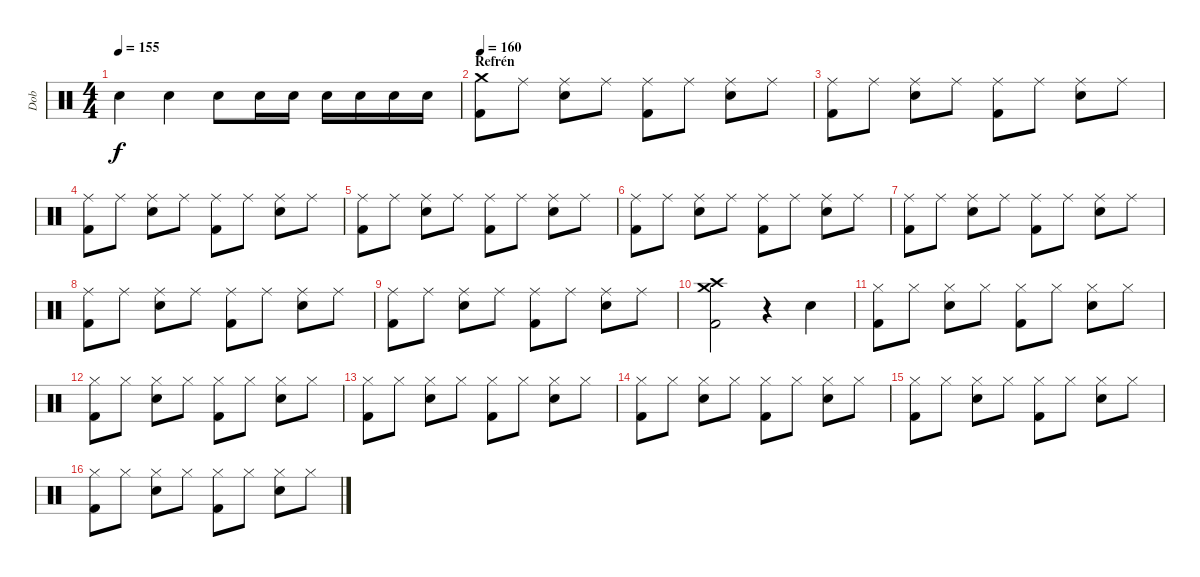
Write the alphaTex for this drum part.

\track ("Dob" "Dob") {instrument percussion}
\staff {score}
\articulation defaults
\ts (4 4)
\tempo 155
\clef neutral
\ks c "Snare (hit) 2".4{dy f} "Snare (hit) 2".4 "Snare (hit) 2".8 "Snare (hit) 2".16 "Snare (hit) 2".16 "Snare (hit) 2".16 "Snare (hit) 2".16 "Snare (hit) 2".16 "Snare (hit) 2".16
|
\section ("" "Refrén")
\tempo 160
("Crash medium (hit)" "Kick (hit) 2").8 "Ride (middle)".8 ("Ride (middle)" "Snare (hit) 2").8 "Ride (middle)".8 ("Ride (middle)" "Kick (hit) 2").8 "Ride (middle)".8 ("Ride (middle)" "Snare (hit) 2").8 "Ride (middle)".8 |
("Ride (middle)" "Kick (hit) 2").8 "Ride (middle)".8 ("Ride (middle)" "Snare (hit) 2").8 "Ride (middle)".8 ("Ride (middle)" "Kick (hit) 2").8 "Ride (middle)".8 ("Ride (middle)" "Snare (hit) 2").8 "Ride (middle)".8 |
("Ride (middle)" "Kick (hit) 2").8 "Ride (middle)".8 ("Ride (middle)" "Snare (hit) 2").8 "Ride (middle)".8 ("Ride (middle)" "Kick (hit) 2").8 "Ride (middle)".8 ("Ride (middle)" "Snare (hit) 2").8 "Ride (middle)".8 |
("Ride (middle)" "Kick (hit) 2").8 "Ride (middle)".8 ("Ride (middle)" "Snare (hit) 2").8 "Ride (middle)".8 ("Ride (middle)" "Kick (hit) 2").8 "Ride (middle)".8 ("Ride (middle)" "Snare (hit) 2").8 "Ride (middle)".8 |
("Ride (middle)" "Kick (hit) 2").8 "Ride (middle)".8 ("Ride (middle)" "Snare (hit) 2").8 "Ride (middle)".8 ("Ride (middle)" "Kick (hit) 2").8 "Ride (middle)".8 ("Ride (middle)" "Snare (hit) 2").8 "Ride (middle)".8 |
("Ride (middle)" "Kick (hit) 2").8 "Ride (middle)".8 ("Ride (middle)" "Snare (hit) 2").8 "Ride (middle)".8 ("Ride (middle)" "Kick (hit) 2").8 "Ride (middle)".8 ("Ride (middle)" "Snare (hit) 2").8 "Ride (middle)".8 |
("Ride (middle)" "Kick (hit) 2").8 "Ride (middle)".8 ("Ride (middle)" "Snare (hit) 2").8 "Ride (middle)".8 ("Ride (middle)" "Kick (hit) 2").8 "Ride (middle)".8 ("Ride (middle)" "Snare (hit) 2").8 "Ride (middle)".8 |
("Ride (middle)" "Kick (hit) 2").8 "Ride (middle)".8 ("Ride (middle)" "Snare (hit) 2").8 "Ride (middle)".8 ("Ride (middle)" "Kick (hit) 2").8 "Ride (middle)".8 ("Ride (middle)" "Snare (hit) 2").8 "Ride (middle)".8 |
("Crash high (hit)" "Crash medium (hit)" "Kick (hit) 2").2 r.4 "Snare (hit) 2".4 |
("Hi-Hat (closed)" "Kick (hit) 2").8 "Hi-Hat (closed)".8 ("Hi-Hat (closed)" "Snare (hit) 2").8 "Hi-Hat (closed)".8 ("Hi-Hat (closed)" "Kick (hit) 2").8 "Hi-Hat (closed)".8 ("Hi-Hat (closed)" "Snare (hit) 2").8 "Hi-Hat (closed)".8 |
("Hi-Hat (closed)" "Kick (hit) 2").8 "Hi-Hat (closed)".8 ("Hi-Hat (closed)" "Snare (hit) 2").8 "Hi-Hat (closed)".8 ("Hi-Hat (closed)" "Kick (hit) 2").8 "Hi-Hat (closed)".8 ("Hi-Hat (closed)" "Snare (hit) 2").8 "Hi-Hat (closed)".8 |
("Hi-Hat (closed)" "Kick (hit) 2").8 "Hi-Hat (closed)".8 ("Hi-Hat (closed)" "Snare (hit) 2").8 "Hi-Hat (closed)".8 ("Hi-Hat (closed)" "Kick (hit) 2").8 "Hi-Hat (closed)".8 ("Hi-Hat (closed)" "Snare (hit) 2").8 "Hi-Hat (closed)".8 |
("Hi-Hat (closed)" "Kick (hit) 2").8 "Hi-Hat (closed)".8 ("Hi-Hat (closed)" "Snare (hit) 2").8 "Hi-Hat (closed)".8 ("Hi-Hat (closed)" "Kick (hit) 2").8 "Hi-Hat (closed)".8 ("Hi-Hat (closed)" "Snare (hit) 2").8 "Hi-Hat (closed)".8 |
("Hi-Hat (closed)" "Kick (hit) 2").8 "Hi-Hat (closed)".8 ("Hi-Hat (closed)" "Snare (hit) 2").8 "Hi-Hat (closed)".8 ("Hi-Hat (closed)" "Kick (hit) 2").8 "Hi-Hat (closed)".8 ("Hi-Hat (closed)" "Snare (hit) 2").8 "Hi-Hat (closed)".8 |
("Hi-Hat (closed)" "Kick (hit) 2").8 "Hi-Hat (closed)".8 ("Hi-Hat (closed)" "Snare (hit) 2").8 "Hi-Hat (closed)".8 ("Hi-Hat (closed)" "Kick (hit) 2").8 "Hi-Hat (closed)".8 ("Hi-Hat (closed)" "Snare (hit) 2").8 "Hi-Hat (closed)".8
